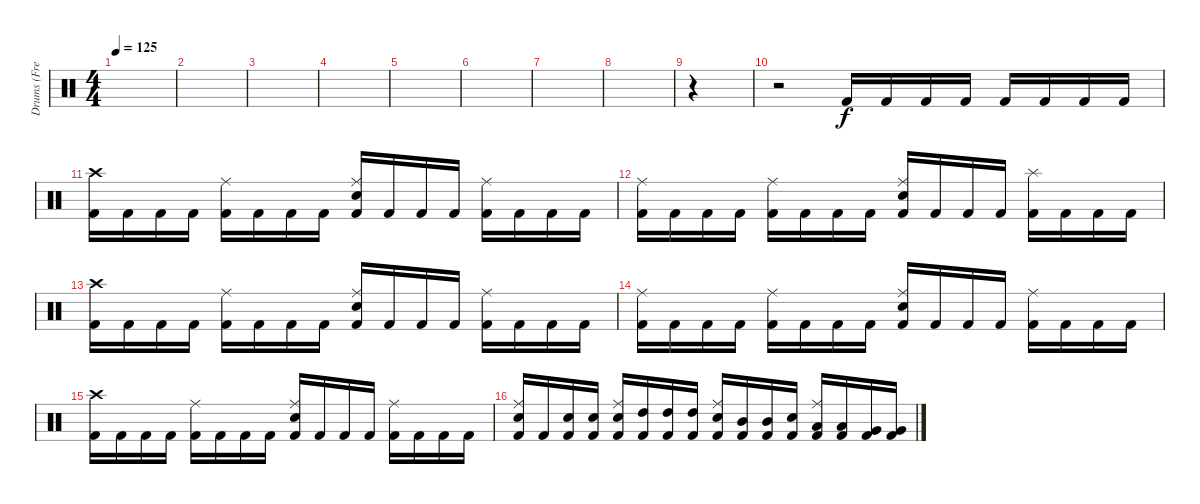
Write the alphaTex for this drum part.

\track ("Drums (Fredrik Andersson)" "Drums (Fre") {instrument percussion}
\staff {score}
\articulation defaults
\ts (4 4)
\tempo 125
\clef neutral
\ks c
|
|
|
|
|
|
|
|
r.4 |
r.2 "Kick (hit) 2".16 "Kick (hit) 2".16 "Kick (hit) 2".16 "Kick (hit) 2".16 "Kick (hit) 2".16 "Kick (hit) 2".16 "Kick (hit) 2".16 "Kick (hit) 2".16 |
("Crash high (hit)" "Kick (hit) 2").16 "Kick (hit) 2".16 "Kick (hit) 2".16 "Kick (hit) 2".16 ("Ride (middle)" "Kick (hit) 2").16 "Kick (hit) 2".16 "Kick (hit) 2".16 "Kick (hit) 2".16 ("Ride (middle)" "Snare (hit) 2" "Kick (hit) 2").16 "Kick (hit) 2".16 "Kick (hit) 2".16 "Kick (hit) 2".16 ("Ride (middle)" "Kick (hit) 2").16 "Kick (hit) 2".16 "Kick (hit) 2".16 "Kick (hit) 2".16 |
("Ride (middle)" "Kick (hit) 2").16 "Kick (hit) 2".16 "Kick (hit) 2".16 "Kick (hit) 2".16 ("Ride (middle)" "Kick (hit) 2").16 "Kick (hit) 2".16 "Kick (hit) 2".16 "Kick (hit) 2".16 ("Ride (middle)" "Snare (hit) 2" "Kick (hit) 2").16 "Kick (hit) 2".16 "Kick (hit) 2".16 "Kick (hit) 2".16 ("Splash (hit)" "Kick (hit) 2").16 "Kick (hit) 2".16 "Kick (hit) 2".16 "Kick (hit) 2".16 |
("Crash high (hit)" "Kick (hit) 2").16 "Kick (hit) 2".16 "Kick (hit) 2".16 "Kick (hit) 2".16 ("Ride (middle)" "Kick (hit) 2").16 "Kick (hit) 2".16 "Kick (hit) 2".16 "Kick (hit) 2".16 ("Ride (middle)" "Snare (hit) 2" "Kick (hit) 2").16 "Kick (hit) 2".16 "Kick (hit) 2".16 "Kick (hit) 2".16 ("Ride (middle)" "Kick (hit) 2").16 "Kick (hit) 2".16 "Kick (hit) 2".16 "Kick (hit) 2".16 |
("Ride (middle)" "Kick (hit) 2").16 "Kick (hit) 2".16 "Kick (hit) 2".16 "Kick (hit) 2".16 ("Ride (middle)" "Kick (hit) 2").16 "Kick (hit) 2".16 "Kick (hit) 2".16 "Kick (hit) 2".16 ("Ride (middle)" "Snare (hit) 2" "Kick (hit) 2").16 "Kick (hit) 2".16 "Kick (hit) 2".16 "Kick (hit) 2".16 ("Ride (middle)" "Kick (hit) 2").16 "Kick (hit) 2".16 "Kick (hit) 2".16 "Kick (hit) 2".16 |
("Crash high (hit)" "Kick (hit) 2").16 "Kick (hit) 2".16 "Kick (hit) 2".16 "Kick (hit) 2".16 ("Ride (middle)" "Kick (hit) 2").16 "Kick (hit) 2".16 "Kick (hit) 2".16 "Kick (hit) 2".16 ("Ride (middle)" "Snare (hit) 2" "Kick (hit) 2").16 "Kick (hit) 2".16 "Kick (hit) 2".16 "Kick (hit) 2".16 ("Ride (middle)" "Kick (hit) 2").16 "Kick (hit) 2".16 "Kick (hit) 2".16 "Kick (hit) 2".16 |
("Ride (middle)" "Snare (hit) 2" "Kick (hit) 2").16 "Kick (hit) 2".16 ("Snare (hit) 2" "Kick (hit) 2").16 ("Snare (hit) 2" "Kick (hit) 2").16 ("Ride (middle)" "Snare (hit) 2" "Kick (hit) 2").16 ("High Tom (hit)" "Kick (hit) 2").16 ("High Tom (hit)" "Kick (hit) 2").16 ("High Tom (hit)" "Kick (hit) 2").16 ("Ride (middle)" "Snare (hit) 2" "Kick (hit) 2").16 ("Mid Tom (hit)" "Kick (hit) 2").16 ("Mid Tom (hit)" "Kick (hit) 2").16 ("Snare (hit) 2" "Kick (hit) 2").16 ("Ride (middle)" "Low Tom (hit)" "Kick (hit) 2").16 ("Low Tom (hit)" "Kick (hit) 2").16 ("Very Low Tom (hit)" "Kick (hit) 2").16 ("Very Low Tom (hit)" "Kick (hit) 2").16
